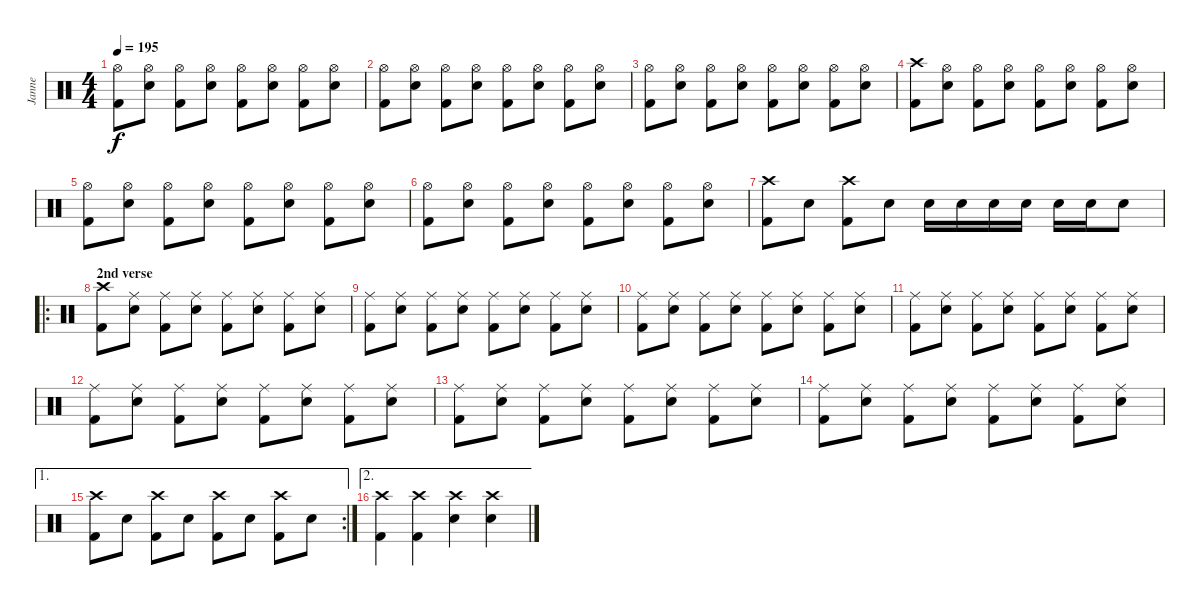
\track ("Janne" "Janne") {instrument percussion}
\staff {score}
\articulation defaults
\ts (4 4)
\tempo 195
\clef neutral
\ks c
("Hi-Hat (open)" "Kick (hit) 2").8{dy f} ("Hi-Hat (open)" "Electric Snare (hit)").8 ("Hi-Hat (open)" "Kick (hit) 2").8 ("Hi-Hat (open)" "Electric Snare (hit)").8 ("Hi-Hat (open)" "Kick (hit) 2").8 ("Hi-Hat (open)" "Electric Snare (hit)").8 ("Hi-Hat (open)" "Kick (hit) 2").8 ("Hi-Hat (open)" "Electric Snare (hit)").8 |
("Hi-Hat (open)" "Kick (hit) 2").8 ("Hi-Hat (open)" "Electric Snare (hit)").8 ("Hi-Hat (open)" "Kick (hit) 2").8 ("Hi-Hat (open)" "Electric Snare (hit)").8 ("Hi-Hat (open)" "Kick (hit) 2").8 ("Hi-Hat (open)" "Electric Snare (hit)").8 ("Hi-Hat (open)" "Kick (hit) 2").8 ("Hi-Hat (open)" "Electric Snare (hit)").8 |
("Hi-Hat (open)" "Kick (hit) 2").8 ("Hi-Hat (open)" "Electric Snare (hit)").8 ("Hi-Hat (open)" "Kick (hit) 2").8 ("Hi-Hat (open)" "Electric Snare (hit)").8 ("Hi-Hat (open)" "Kick (hit) 2").8 ("Hi-Hat (open)" "Electric Snare (hit)").8 ("Hi-Hat (open)" "Kick (hit) 2").8 ("Hi-Hat (open)" "Electric Snare (hit)").8 |
("Crash high (hit)" "Kick (hit) 2").8 ("Hi-Hat (open)" "Electric Snare (hit)").8 ("Hi-Hat (open)" "Kick (hit) 2").8 ("Hi-Hat (open)" "Electric Snare (hit)").8 ("Hi-Hat (open)" "Kick (hit) 2").8 ("Hi-Hat (open)" "Electric Snare (hit)").8 ("Hi-Hat (open)" "Kick (hit) 2").8 ("Hi-Hat (open)" "Electric Snare (hit)").8 |
("Hi-Hat (open)" "Kick (hit) 2").8 ("Hi-Hat (open)" "Electric Snare (hit)").8 ("Hi-Hat (open)" "Kick (hit) 2").8 ("Hi-Hat (open)" "Electric Snare (hit)").8 ("Hi-Hat (open)" "Kick (hit) 2").8 ("Hi-Hat (open)" "Electric Snare (hit)").8 ("Hi-Hat (open)" "Kick (hit) 2").8 ("Hi-Hat (open)" "Electric Snare (hit)").8 |
("Hi-Hat (open)" "Kick (hit) 2").8 ("Hi-Hat (open)" "Electric Snare (hit)").8 ("Hi-Hat (open)" "Kick (hit) 2").8 ("Hi-Hat (open)" "Electric Snare (hit)").8 ("Hi-Hat (open)" "Kick (hit) 2").8 ("Hi-Hat (open)" "Electric Snare (hit)").8 ("Hi-Hat (open)" "Kick (hit) 2").8 ("Hi-Hat (open)" "Electric Snare (hit)").8 |
("Crash high (hit)" "Kick (hit) 2").8 "Electric Snare (hit)".8 ("Crash high (hit)" "Kick (hit) 2").8 "Electric Snare (hit)".8 "Electric Snare (hit)".16 "Electric Snare (hit)".16 "Electric Snare (hit)".16 "Electric Snare (hit)".16 "Electric Snare (hit)".16 "Electric Snare (hit)".16 "Electric Snare (hit)".8 |
\ro
\section ("" "2nd verse")
("Crash high (hit)" "Kick (hit) 2").8 ("Ride (middle)" "Electric Snare (hit)").8 ("Ride (middle)" "Kick (hit) 2").8 ("Ride (middle)" "Electric Snare (hit)").8 ("Ride (middle)" "Kick (hit) 2").8 ("Ride (middle)" "Electric Snare (hit)").8 ("Ride (middle)" "Kick (hit) 2").8 ("Ride (middle)" "Electric Snare (hit)").8 |
("Ride (middle)" "Kick (hit) 2").8 ("Ride (middle)" "Electric Snare (hit)").8 ("Ride (middle)" "Kick (hit) 2").8 ("Ride (middle)" "Electric Snare (hit)").8 ("Ride (middle)" "Kick (hit) 2").8 ("Ride (middle)" "Electric Snare (hit)").8 ("Ride (middle)" "Kick (hit) 2").8 ("Ride (middle)" "Electric Snare (hit)").8 |
("Ride (middle)" "Kick (hit) 2").8 ("Ride (middle)" "Electric Snare (hit)").8 ("Ride (middle)" "Kick (hit) 2").8 ("Ride (middle)" "Electric Snare (hit)").8 ("Ride (middle)" "Kick (hit) 2").8 ("Ride (middle)" "Electric Snare (hit)").8 ("Ride (middle)" "Kick (hit) 2").8 ("Ride (middle)" "Electric Snare (hit)").8 |
("Ride (middle)" "Kick (hit) 2").8 ("Ride (middle)" "Electric Snare (hit)").8 ("Ride (middle)" "Kick (hit) 2").8 ("Ride (middle)" "Electric Snare (hit)").8 ("Ride (middle)" "Kick (hit) 2").8 ("Ride (middle)" "Electric Snare (hit)").8 ("Ride (middle)" "Kick (hit) 2").8 ("Ride (middle)" "Electric Snare (hit)").8 |
("Ride (middle)" "Kick (hit) 2").8 ("Ride (middle)" "Electric Snare (hit)").8 ("Ride (middle)" "Kick (hit) 2").8 ("Ride (middle)" "Electric Snare (hit)").8 ("Ride (middle)" "Kick (hit) 2").8 ("Ride (middle)" "Electric Snare (hit)").8 ("Ride (middle)" "Kick (hit) 2").8 ("Ride (middle)" "Electric Snare (hit)").8 |
("Ride (middle)" "Kick (hit) 2").8 ("Ride (middle)" "Electric Snare (hit)").8 ("Ride (middle)" "Kick (hit) 2").8 ("Ride (middle)" "Electric Snare (hit)").8 ("Ride (middle)" "Kick (hit) 2").8 ("Ride (middle)" "Electric Snare (hit)").8 ("Ride (middle)" "Kick (hit) 2").8 ("Ride (middle)" "Electric Snare (hit)").8 |
("Ride (middle)" "Kick (hit) 2").8 ("Ride (middle)" "Electric Snare (hit)").8 ("Ride (middle)" "Kick (hit) 2").8 ("Ride (middle)" "Electric Snare (hit)").8 ("Ride (middle)" "Kick (hit) 2").8 ("Ride (middle)" "Electric Snare (hit)").8 ("Ride (middle)" "Kick (hit) 2").8 ("Ride (middle)" "Electric Snare (hit)").8 |
\ae 1
\rc 2
("Crash high (hit)" "Kick (hit) 2").8 "Electric Snare (hit)".8 ("Crash high (hit)" "Kick (hit) 2").8 "Electric Snare (hit)".8 ("Crash high (hit)" "Kick (hit) 2").8 "Electric Snare (hit)".8 ("Crash high (hit)" "Kick (hit) 2").8 "Electric Snare (hit)".8 |
\ae 2
("Crash high (hit)" "Kick (hit) 2").4 ("Crash high (hit)" "Kick (hit) 2").4 ("Crash high (hit)" "Electric Snare (hit)").4 ("Crash high (hit)" "Electric Snare (hit)").4
